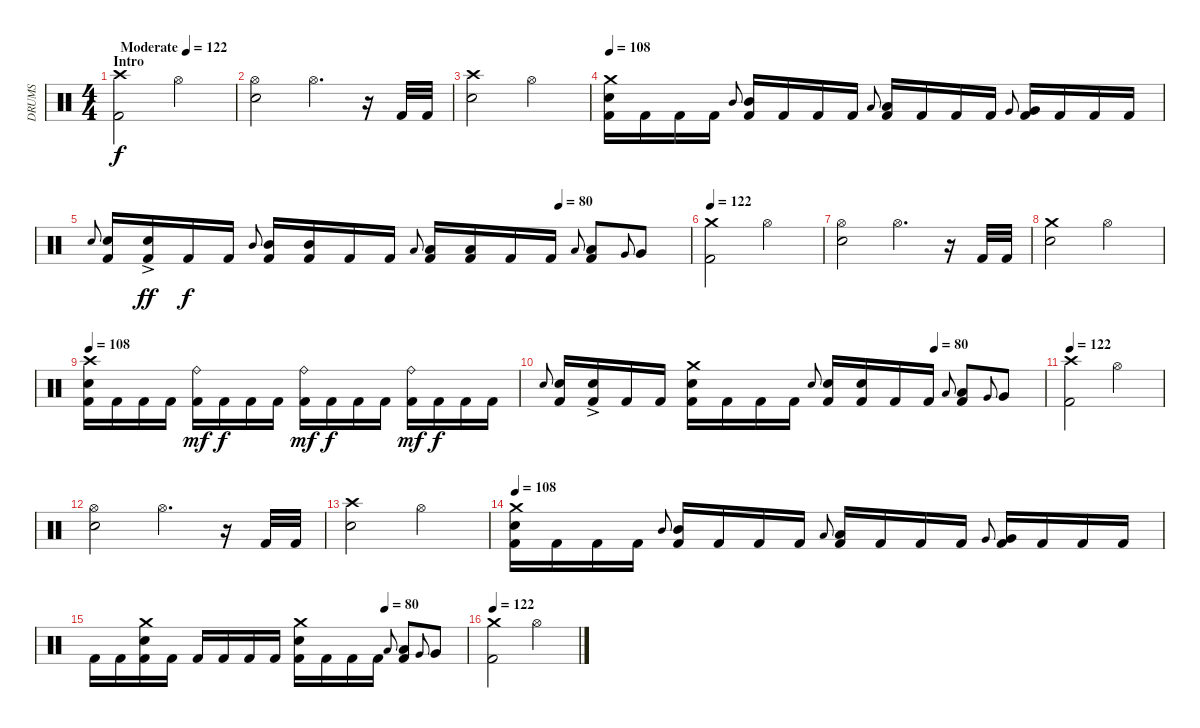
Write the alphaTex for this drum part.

\track ("DRUMS" "DRUMS") {instrument percussion}
\staff {score}
\articulation defaults
\ts (4 4)
\section ("" "Intro")
\tempo (122 "Moderate")
\clef neutral
\ks c
("Crash high (hit)" "Kick (hit) 2").2{dy f} "Hi-Hat (open)".2 |
("Hi-Hat (open)" "Snare (hit) 2").2 "Hi-Hat (open)".4{d} r.16 "Kick (hit) 2".32 "Kick (hit) 2".32 |
("Crash high (hit)" "Snare (hit) 2").2 "Hi-Hat (open)".2 |
\tempo 108
("Crash medium (hit)" "Snare (hit) 2" "Kick (hit) 2").16 "Kick (hit) 2".16 "Kick (hit) 2".16 "Kick (hit) 2".16 "Mid Tom (hit)".8{gr onbeat} ("Mid Tom (hit)" "Kick (hit) 2").16 "Kick (hit) 2".16 "Kick (hit) 2".16 "Kick (hit) 2".16 "Low Tom (hit)".8{gr onbeat} ("Low Tom (hit)" "Kick (hit) 2").16 "Kick (hit) 2".16 "Kick (hit) 2".16 "Kick (hit) 2".16 "Very Low Tom (hit)".8{gr onbeat} ("Very Low Tom (hit)" "Kick (hit) 2").16 "Kick (hit) 2".16 "Kick (hit) 2".16 "Kick (hit) 2".16 |
\tempo (80 0.78125)
"Snare (hit) 2".8{gr onbeat} ("Snare (hit) 2" "Kick (hit) 2").16 ("Snare (hit) 2"{ac} "Kick (hit) 2").16{dy ff} "Kick (hit) 2".16{dy f} "Kick (hit) 2".16 "Mid Tom (hit)".8{gr onbeat} ("Mid Tom (hit)" "Kick (hit) 2").16 ("Mid Tom (hit)" "Kick (hit) 2").16 "Kick (hit) 2".16 "Kick (hit) 2".16 "Low Tom (hit)".8{gr onbeat} ("Low Tom (hit)" "Kick (hit) 2").16 ("Low Tom (hit)" "Kick (hit) 2").16 "Kick (hit) 2".16 "Kick (hit) 2".16 "Low Tom (hit)".8{gr onbeat} ("Low Tom (hit)" "Kick (hit) 2").8 "Very Low Tom (hit)".8{gr onbeat} "Very Low Tom (hit)".8 |
\tempo 122
("Crash medium (hit)" "Kick (hit) 2").2 "Hi-Hat (open)".2 |
("Hi-Hat (open)" "Snare (hit) 2").2 "Hi-Hat (open)".4{d} r.16 "Kick (hit) 2".32 "Kick (hit) 2".32 |
("Crash medium (hit)" "Snare (hit) 2").2 "Hi-Hat (open)".2 |
\tempo 108
("Crash high (hit)" "Snare (hit) 2" "Kick (hit) 2").16 "Kick (hit) 2".16 "Kick (hit) 2".16 "Kick (hit) 2".16 ("Ride (bell)" "Kick (hit) 2").16{dy mf} "Kick (hit) 2".16{dy f} "Kick (hit) 2".16 "Kick (hit) 2".16 ("Ride (bell)" "Kick (hit) 2").16{dy mf} "Kick (hit) 2".16{dy f} "Kick (hit) 2".16 "Kick (hit) 2".16 ("Ride (bell)" "Kick (hit) 2").16{dy mf} "Kick (hit) 2".16{dy f} "Kick (hit) 2".16 "Kick (hit) 2".16 |
\tempo (80 0.78125)
"Snare (hit) 2".8{gr onbeat} ("Snare (hit) 2" "Kick (hit) 2").16 ("Snare (hit) 2"{ac} "Kick (hit) 2").16 "Kick (hit) 2".16 "Kick (hit) 2".16 ("Crash medium (hit)" "Snare (hit) 2" "Kick (hit) 2").16 "Kick (hit) 2".16 "Kick (hit) 2".16 "Kick (hit) 2".16 "Snare (hit) 2".8{gr onbeat} ("Snare (hit) 2" "Kick (hit) 2").16 ("Snare (hit) 2" "Kick (hit) 2").16 "Kick (hit) 2".16 "Kick (hit) 2".16 "Low Tom (hit)".8{gr onbeat} ("Low Tom (hit)" "Kick (hit) 2").8 "Very Low Tom (hit)".8{gr onbeat} "Very Low Tom (hit)".8 |
\tempo 122
("Crash high (hit)" "Kick (hit) 2").2 "Hi-Hat (open)".2 |
("Hi-Hat (open)" "Snare (hit) 2").2 "Hi-Hat (open)".4{d} r.16 "Kick (hit) 2".32 "Kick (hit) 2".32 |
("Crash high (hit)" "Snare (hit) 2").2 "Hi-Hat (open)".2 |
\tempo 108
("Crash medium (hit)" "Snare (hit) 2" "Kick (hit) 2").16 "Kick (hit) 2".16 "Kick (hit) 2".16 "Kick (hit) 2".16 "Mid Tom (hit)".8{gr onbeat} ("Mid Tom (hit)" "Kick (hit) 2").16 "Kick (hit) 2".16 "Kick (hit) 2".16 "Kick (hit) 2".16 "Low Tom (hit)".8{gr onbeat} ("Low Tom (hit)" "Kick (hit) 2").16 "Kick (hit) 2".16 "Kick (hit) 2".16 "Kick (hit) 2".16 "Very Low Tom (hit)".8{gr onbeat} ("Very Low Tom (hit)" "Kick (hit) 2").16 "Kick (hit) 2".16 "Kick (hit) 2".16 "Kick (hit) 2".16 |
\tempo (80 0.78125)
"Kick (hit) 2".16 "Kick (hit) 2".16 ("Crash medium (hit)" "Snare (hit) 2" "Kick (hit) 2").16 "Kick (hit) 2".16 "Kick (hit) 2".16 "Kick (hit) 2".16 "Kick (hit) 2".16 "Kick (hit) 2".16 ("Crash medium (hit)" "Snare (hit) 2" "Kick (hit) 2").16 "Kick (hit) 2".16 "Kick (hit) 2".16 "Kick (hit) 2".16 "Low Tom (hit)".8{gr onbeat} ("Low Tom (hit)" "Kick (hit) 2").8 "Very Low Tom (hit)".8{gr onbeat} "Very Low Tom (hit)".8 |
\tempo 122
("Crash medium (hit)" "Kick (hit) 2").2 "Hi-Hat (open)".2
